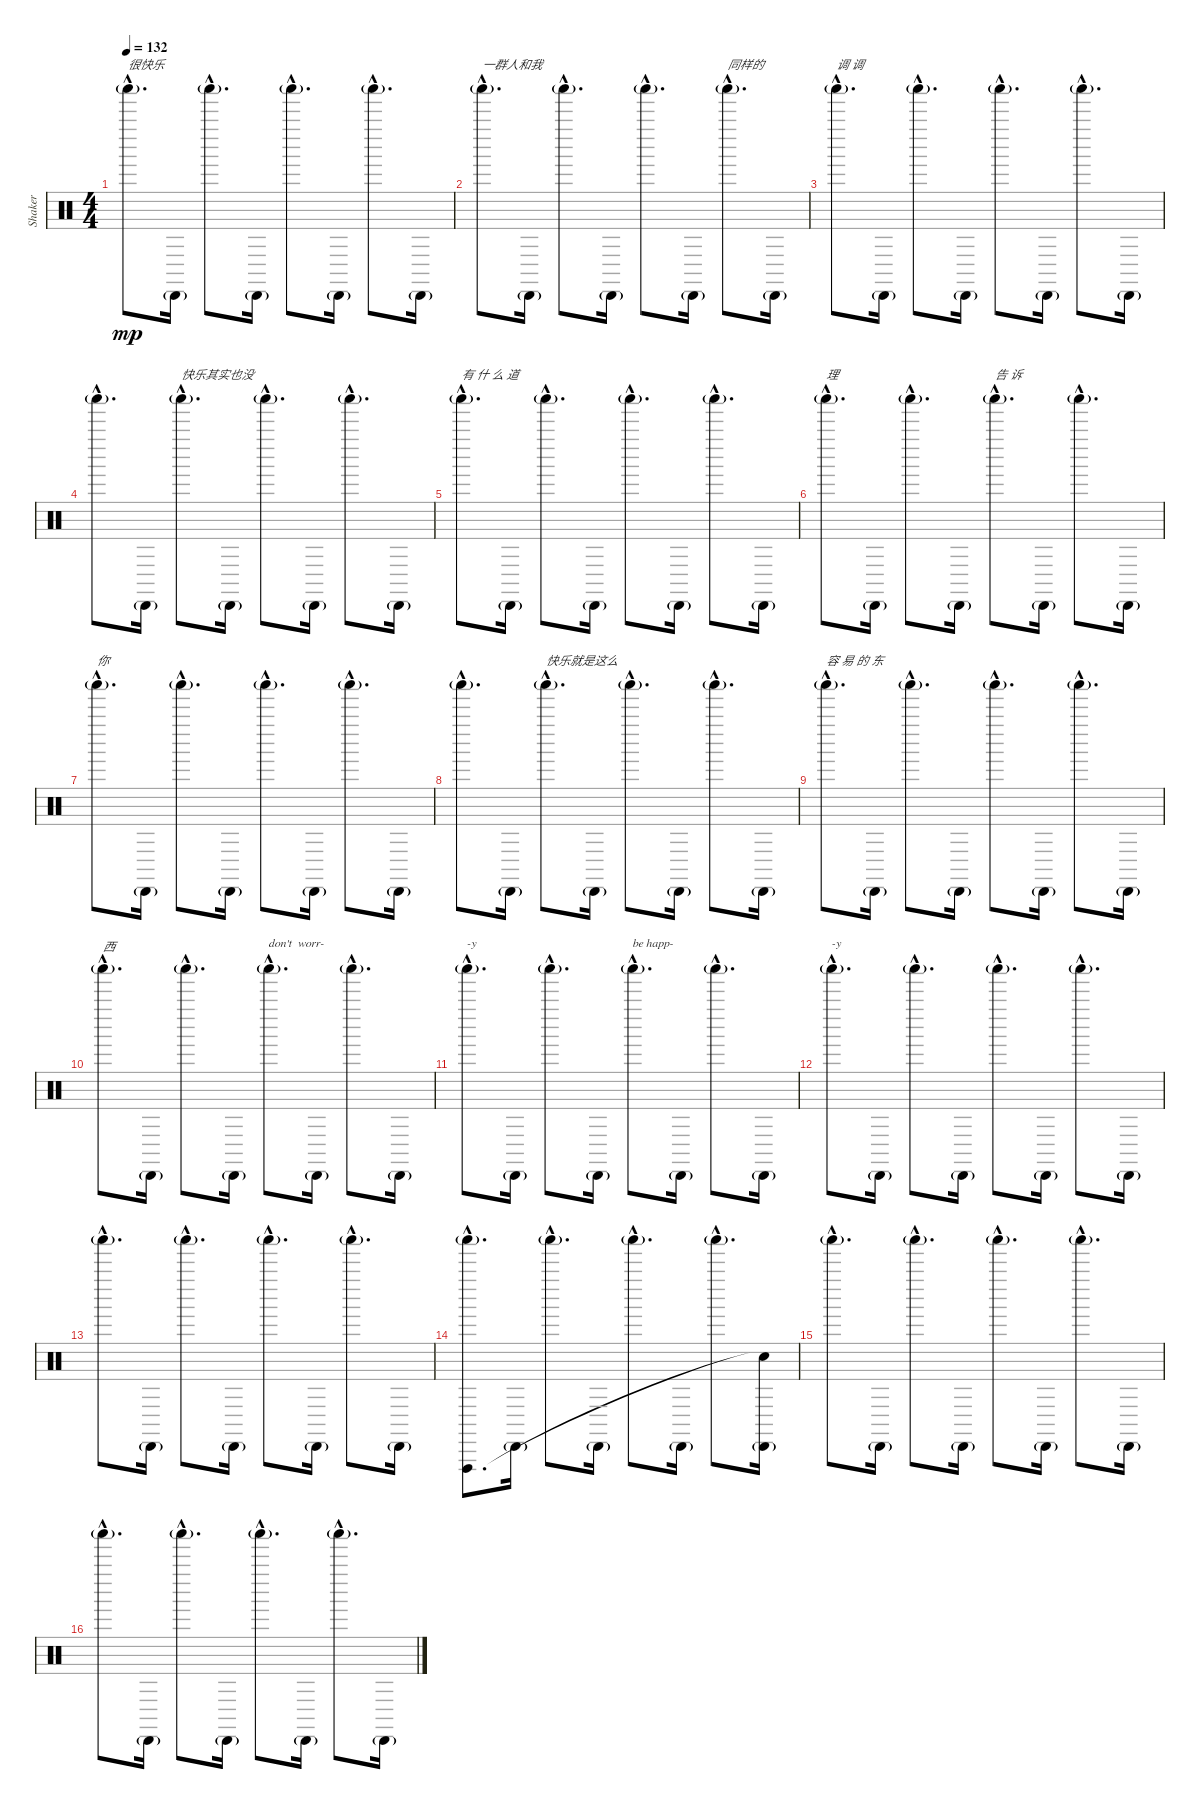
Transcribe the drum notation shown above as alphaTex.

\track ("Shaker" "Shaker") {instrument percussion}
\staff {score}
\articulation defaults
\ts (4 4)
\tempo 132
\clef neutral
\ks c "Shaker (hit)"{g hac}.8{d txt "很快乐" dy mp} "Cabasa (hit)"{g}.16 "Shaker (hit)"{g hac}.8{d} "Cabasa (hit)"{g}.16 "Shaker (hit)"{g hac}.8{d} "Cabasa (hit)"{g}.16 "Shaker (hit)"{g hac}.8{d} "Cabasa (hit)"{g}.16
|
"Shaker (hit)"{g hac}.8{d txt "一群人和我"} "Cabasa (hit)"{g}.16 "Shaker (hit)"{g hac}.8{d} "Cabasa (hit)"{g}.16 "Shaker (hit)"{g hac}.8{d} "Cabasa (hit)"{g}.16 "Shaker (hit)"{g hac}.8{d txt "同样的"} "Cabasa (hit)"{g}.16 |
"Shaker (hit)"{g hac}.8{d txt "调 调"} "Cabasa (hit)"{g}.16 "Shaker (hit)"{g hac}.8{d} "Cabasa (hit)"{g}.16 "Shaker (hit)"{g hac}.8{d} "Cabasa (hit)"{g}.16 "Shaker (hit)"{g hac}.8{d} "Cabasa (hit)"{g}.16 |
"Shaker (hit)"{g hac}.8{d} "Cabasa (hit)"{g}.16 "Shaker (hit)"{g hac}.8{d txt "快乐其实也没"} "Cabasa (hit)"{g}.16 "Shaker (hit)"{g hac}.8{d} "Cabasa (hit)"{g}.16 "Shaker (hit)"{g hac}.8{d} "Cabasa (hit)"{g}.16 |
"Shaker (hit)"{g hac}.8{d txt "有 什 么 道"} "Cabasa (hit)"{g}.16 "Shaker (hit)"{g hac}.8{d} "Cabasa (hit)"{g}.16 "Shaker (hit)"{g hac}.8{d} "Cabasa (hit)"{g}.16 "Shaker (hit)"{g hac}.8{d} "Cabasa (hit)"{g}.16 |
"Shaker (hit)"{g hac}.8{d txt "理"} "Cabasa (hit)"{g}.16 "Shaker (hit)"{g hac}.8{d} "Cabasa (hit)"{g}.16 "Shaker (hit)"{g hac}.8{d txt "告 诉"} "Cabasa (hit)"{g}.16 "Shaker (hit)"{g hac}.8{d} "Cabasa (hit)"{g}.16 |
"Shaker (hit)"{g hac}.8{d txt "你"} "Cabasa (hit)"{g}.16 "Shaker (hit)"{g hac}.8{d} "Cabasa (hit)"{g}.16 "Shaker (hit)"{g hac}.8{d} "Cabasa (hit)"{g}.16 "Shaker (hit)"{g hac}.8{d} "Cabasa (hit)"{g}.16 |
"Shaker (hit)"{g hac}.8{d} "Cabasa (hit)"{g}.16 "Shaker (hit)"{g hac}.8{d txt "快乐就是这么"} "Cabasa (hit)"{g}.16 "Shaker (hit)"{g hac}.8{d} "Cabasa (hit)"{g}.16 "Shaker (hit)"{g hac}.8{d} "Cabasa (hit)"{g}.16 |
"Shaker (hit)"{g hac}.8{d txt "容 易 的 东"} "Cabasa (hit)"{g}.16 "Shaker (hit)"{g hac}.8{d} "Cabasa (hit)"{g}.16 "Shaker (hit)"{g hac}.8{d} "Cabasa (hit)"{g}.16 "Shaker (hit)"{g hac}.8{d} "Cabasa (hit)"{g}.16 |
"Shaker (hit)"{g hac}.8{d txt "西"} "Cabasa (hit)"{g}.16 "Shaker (hit)"{g hac}.8{d} "Cabasa (hit)"{g}.16 "Shaker (hit)"{g hac}.8{d txt "don't  worr-"} "Cabasa (hit)"{g}.16 "Shaker (hit)"{g hac}.8{d} "Cabasa (hit)"{g}.16 |
"Shaker (hit)"{g hac}.8{d txt "-y"} "Cabasa (hit)"{g}.16 "Shaker (hit)"{g hac}.8{d} "Cabasa (hit)"{g}.16 "Shaker (hit)"{g hac}.8{d txt "be happ-"} "Cabasa (hit)"{g}.16 "Shaker (hit)"{g hac}.8{d} "Cabasa (hit)"{g}.16 |
"Shaker (hit)"{g hac}.8{d txt "-y"} "Cabasa (hit)"{g}.16 "Shaker (hit)"{g hac}.8{d} "Cabasa (hit)"{g}.16 "Shaker (hit)"{g hac}.8{d} "Cabasa (hit)"{g}.16 "Shaker (hit)"{g hac}.8{d} "Cabasa (hit)"{g}.16 |
"Shaker (hit)"{g hac}.8{d} "Cabasa (hit)"{g}.16 "Shaker (hit)"{g hac}.8{d} "Cabasa (hit)"{g}.16 "Shaker (hit)"{g hac}.8{d} "Cabasa (hit)"{g}.16 "Shaker (hit)"{g hac}.8{d} "Cabasa (hit)"{g}.16 |
("Shaker (hit)"{g hac} "Vibraslap (hit)"{hac}).8{d} "Cabasa (hit)"{g}.16 "Shaker (hit)"{g hac}.8{d} "Cabasa (hit)"{g}.16 "Shaker (hit)"{g hac}.8{d} "Cabasa (hit)"{g}.16 "Shaker (hit)"{g hac}.8{d} ("Cabasa (hit)"{g} "Snare (hit)"{t}).16 |
"Shaker (hit)"{g hac}.8{d} "Cabasa (hit)"{g}.16 "Shaker (hit)"{g hac}.8{d} "Cabasa (hit)"{g}.16 "Shaker (hit)"{g hac}.8{d} "Cabasa (hit)"{g}.16 "Shaker (hit)"{g hac}.8{d} "Cabasa (hit)"{g}.16 |
"Shaker (hit)"{g hac}.8{d} "Cabasa (hit)"{g}.16 "Shaker (hit)"{g hac}.8{d} "Cabasa (hit)"{g}.16 "Shaker (hit)"{g hac}.8{d} "Cabasa (hit)"{g}.16 "Shaker (hit)"{g hac}.8{d} "Cabasa (hit)"{g}.16
